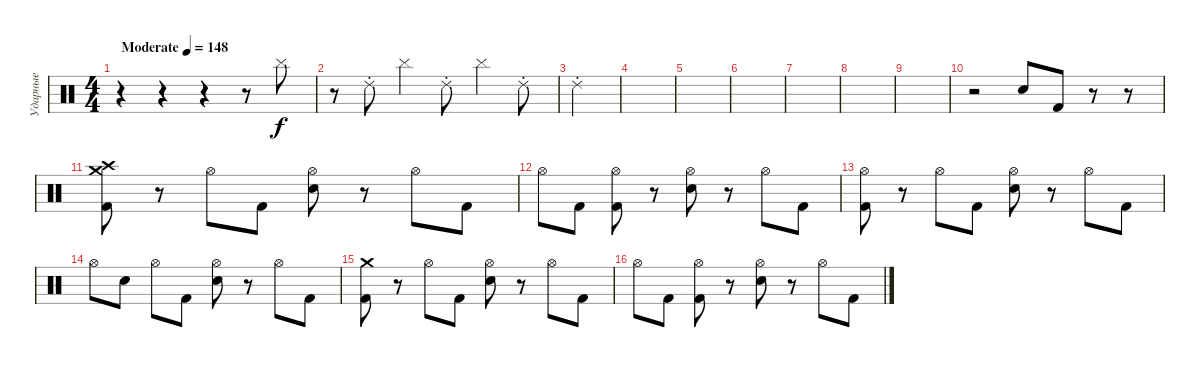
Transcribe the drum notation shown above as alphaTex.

\track ("Ударные" "Ударные") {instrument percussion}
\staff {score}
\articulation defaults
\ts (4 4)
\tempo (148 "Moderate")
\clef neutral
\ks c
r.4{dy f} r.4 r.4 r.8 "Cymbal (hit)".8 |
r.8 "Ride (choke) 2".8 "Cymbal (hit)".4 "Ride (choke) 2".8 "Cymbal (hit)".4 "Ride (choke) 2".8 |
"Ride (choke) 2".4 |
|
|
|
|
|
|
r.2 "Electric Snare (hit)".8 "Kick (hit) 2".8 r.8 r.8 |
("Crash medium (hit)" "Crash high (hit)" "Kick (hit) 2").8 r.8 "Hi-Hat (open)".8 "Kick (hit) 2".8 ("Hi-Hat (open)" "Electric Snare (hit)").8 r.8 "Hi-Hat (open)".8 "Kick (hit) 2".8 |
"Hi-Hat (open)".8 "Kick (hit) 2".8 ("Hi-Hat (open)" "Kick (hit) 2").8 r.8 ("Hi-Hat (open)" "Electric Snare (hit)").8 r.8 "Hi-Hat (open)".8 "Kick (hit) 2".8 |
("Hi-Hat (open)" "Kick (hit) 2").8 r.8 "Hi-Hat (open)".8 "Kick (hit) 2".8 ("Hi-Hat (open)" "Electric Snare (hit)").8 r.8 "Hi-Hat (open)".8 "Kick (hit) 2".8 |
"Hi-Hat (open)".8 "Electric Snare (hit)".8 "Hi-Hat (open)".8 "Kick (hit) 2".8 ("Hi-Hat (open)" "Electric Snare (hit)").8 r.8 "Hi-Hat (open)".8 "Kick (hit) 2".8 |
("Crash medium (hit)" "Kick (hit) 2").8 r.8 "Hi-Hat (open)".8 "Kick (hit) 2".8 ("Hi-Hat (open)" "Electric Snare (hit)").8 r.8 "Hi-Hat (open)".8 "Kick (hit) 2".8 |
"Hi-Hat (open)".8 "Kick (hit) 2".8 ("Hi-Hat (open)" "Kick (hit) 2").8 r.8 ("Hi-Hat (open)" "Electric Snare (hit)").8 r.8 "Hi-Hat (open)".8 "Kick (hit) 2".8
